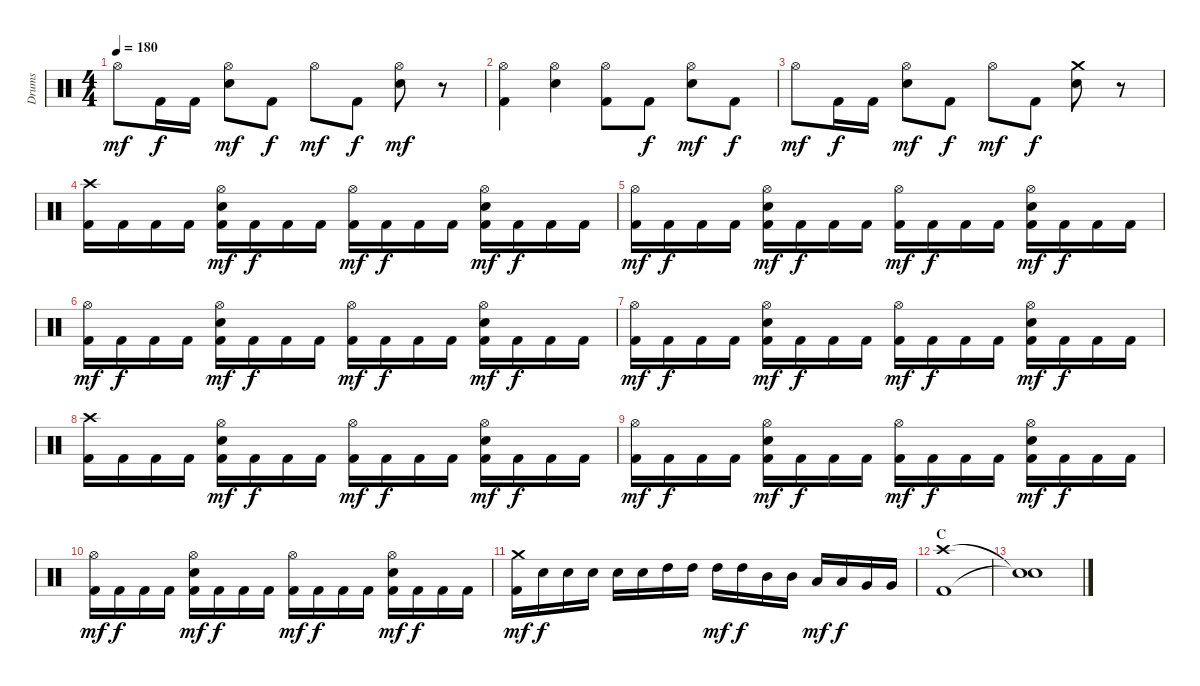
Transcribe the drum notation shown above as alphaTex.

\track ("Drums" "Drums") {instrument percussion}
\staff {score}
\articulation defaults
\ts (4 4)
\tempo 180
\clef neutral
\ks c "Hi-Hat (open)".8{dy mf} "Kick (hit) 2".16{dy f} "Kick (hit) 2".16
("Hi-Hat (open)" "Snare (hit) 2").8{dy mf} "Kick (hit) 2".8{dy f} "Hi-Hat (open)".8{dy mf} "Kick (hit) 2".8{dy f} ("Hi-Hat (open)" "Snare (hit) 2").8{dy mf} r.8 |
("Hi-Hat (open)" "Kick (hit) 2").4 ("Hi-Hat (open)" "Snare (hit) 2").4 ("Hi-Hat (open)" "Kick (hit) 2").8 "Kick (hit) 2".8{dy f} ("Hi-Hat (open)" "Snare (hit) 2").8{dy mf} "Kick (hit) 2".8{dy f} |
"Hi-Hat (open)".8{dy mf} "Kick (hit) 2".16{dy f} "Kick (hit) 2".16 ("Hi-Hat (open)" "Snare (hit) 2").8{dy mf} "Kick (hit) 2".8{dy f} "Hi-Hat (open)".8{dy mf} "Kick (hit) 2".8{dy f} ("Crash medium (hit)" "Snare (hit) 2").8 r.8 |
("Crash high (hit)" "Kick (hit) 2").16 "Kick (hit) 2".16 "Kick (hit) 2".16 "Kick (hit) 2".16 ("Hi-Hat (open)" "Snare (hit) 2" "Kick (hit) 2").16{dy mf} "Kick (hit) 2".16{dy f} "Kick (hit) 2".16 "Kick (hit) 2".16 ("Hi-Hat (open)" "Kick (hit) 2").16{dy mf} "Kick (hit) 2".16{dy f} "Kick (hit) 2".16 "Kick (hit) 2".16 ("Hi-Hat (open)" "Snare (hit) 2" "Kick (hit) 2").16{dy mf} "Kick (hit) 2".16{dy f} "Kick (hit) 2".16 "Kick (hit) 2".16 |
("Hi-Hat (open)" "Kick (hit) 2").16{dy mf} "Kick (hit) 2".16{dy f} "Kick (hit) 2".16 "Kick (hit) 2".16 ("Hi-Hat (open)" "Snare (hit) 2" "Kick (hit) 2").16{dy mf} "Kick (hit) 2".16{dy f} "Kick (hit) 2".16 "Kick (hit) 2".16 ("Hi-Hat (open)" "Kick (hit) 2").16{dy mf} "Kick (hit) 2".16{dy f} "Kick (hit) 2".16 "Kick (hit) 2".16 ("Hi-Hat (open)" "Snare (hit) 2" "Kick (hit) 2").16{dy mf} "Kick (hit) 2".16{dy f} "Kick (hit) 2".16 "Kick (hit) 2".16 |
("Hi-Hat (open)" "Kick (hit) 2").16{dy mf} "Kick (hit) 2".16{dy f} "Kick (hit) 2".16 "Kick (hit) 2".16 ("Hi-Hat (open)" "Snare (hit) 2" "Kick (hit) 2").16{dy mf} "Kick (hit) 2".16{dy f} "Kick (hit) 2".16 "Kick (hit) 2".16 ("Hi-Hat (open)" "Kick (hit) 2").16{dy mf} "Kick (hit) 2".16{dy f} "Kick (hit) 2".16 "Kick (hit) 2".16 ("Hi-Hat (open)" "Snare (hit) 2" "Kick (hit) 2").16{dy mf} "Kick (hit) 2".16{dy f} "Kick (hit) 2".16 "Kick (hit) 2".16 |
("Hi-Hat (open)" "Kick (hit) 2").16{dy mf} "Kick (hit) 2".16{dy f} "Kick (hit) 2".16 "Kick (hit) 2".16 ("Hi-Hat (open)" "Snare (hit) 2" "Kick (hit) 2").16{dy mf} "Kick (hit) 2".16{dy f} "Kick (hit) 2".16 "Kick (hit) 2".16 ("Hi-Hat (open)" "Kick (hit) 2").16{dy mf} "Kick (hit) 2".16{dy f} "Kick (hit) 2".16 "Kick (hit) 2".16 ("Hi-Hat (open)" "Snare (hit) 2" "Kick (hit) 2").16{dy mf} "Kick (hit) 2".16{dy f} "Kick (hit) 2".16 "Kick (hit) 2".16 |
("Crash high (hit)" "Kick (hit) 2").16 "Kick (hit) 2".16 "Kick (hit) 2".16 "Kick (hit) 2".16 ("Hi-Hat (open)" "Snare (hit) 2" "Kick (hit) 2").16{dy mf} "Kick (hit) 2".16{dy f} "Kick (hit) 2".16 "Kick (hit) 2".16 ("Hi-Hat (open)" "Kick (hit) 2").16{dy mf} "Kick (hit) 2".16{dy f} "Kick (hit) 2".16 "Kick (hit) 2".16 ("Hi-Hat (open)" "Snare (hit) 2" "Kick (hit) 2").16{dy mf} "Kick (hit) 2".16{dy f} "Kick (hit) 2".16 "Kick (hit) 2".16 |
("Hi-Hat (open)" "Kick (hit) 2").16{dy mf} "Kick (hit) 2".16{dy f} "Kick (hit) 2".16 "Kick (hit) 2".16 ("Hi-Hat (open)" "Snare (hit) 2" "Kick (hit) 2").16{dy mf} "Kick (hit) 2".16{dy f} "Kick (hit) 2".16 "Kick (hit) 2".16 ("Hi-Hat (open)" "Kick (hit) 2").16{dy mf} "Kick (hit) 2".16{dy f} "Kick (hit) 2".16 "Kick (hit) 2".16 ("Hi-Hat (open)" "Snare (hit) 2" "Kick (hit) 2").16{dy mf} "Kick (hit) 2".16{dy f} "Kick (hit) 2".16 "Kick (hit) 2".16 |
("Hi-Hat (open)" "Kick (hit) 2").16{dy mf} "Kick (hit) 2".16{dy f} "Kick (hit) 2".16 "Kick (hit) 2".16 ("Hi-Hat (open)" "Snare (hit) 2" "Kick (hit) 2").16{dy mf} "Kick (hit) 2".16{dy f} "Kick (hit) 2".16 "Kick (hit) 2".16 ("Hi-Hat (open)" "Kick (hit) 2").16{dy mf} "Kick (hit) 2".16{dy f} "Kick (hit) 2".16 "Kick (hit) 2".16 ("Hi-Hat (open)" "Snare (hit) 2" "Kick (hit) 2").16{dy mf} "Kick (hit) 2".16{dy f} "Kick (hit) 2".16 "Kick (hit) 2".16 |
("Crash medium (hit)" "Kick (hit) 2").16{dy mf} "Snare (hit) 2".16{dy f} "Snare (hit) 2".16 "Snare (hit) 2".16 "Snare (hit) 2".16 "Snare (hit) 2".16 "High Tom (hit)".16 "High Tom (hit)".16 "High Tom (hit)".16{dy mf} "High Tom (hit)".16{dy f} "Mid Tom (hit)".16 "Mid Tom (hit)".16 "Low Tom (hit)".16{dy mf} "Low Tom (hit)".16{dy f} "Very Low Tom (hit)".16 "Very Low Tom (hit)".16 |
\section ("" "C")
("Crash high (hit)" "Kick (hit) 2").1 |
("Snare (hit)"{t} "Snare (hit)"{t}).1
